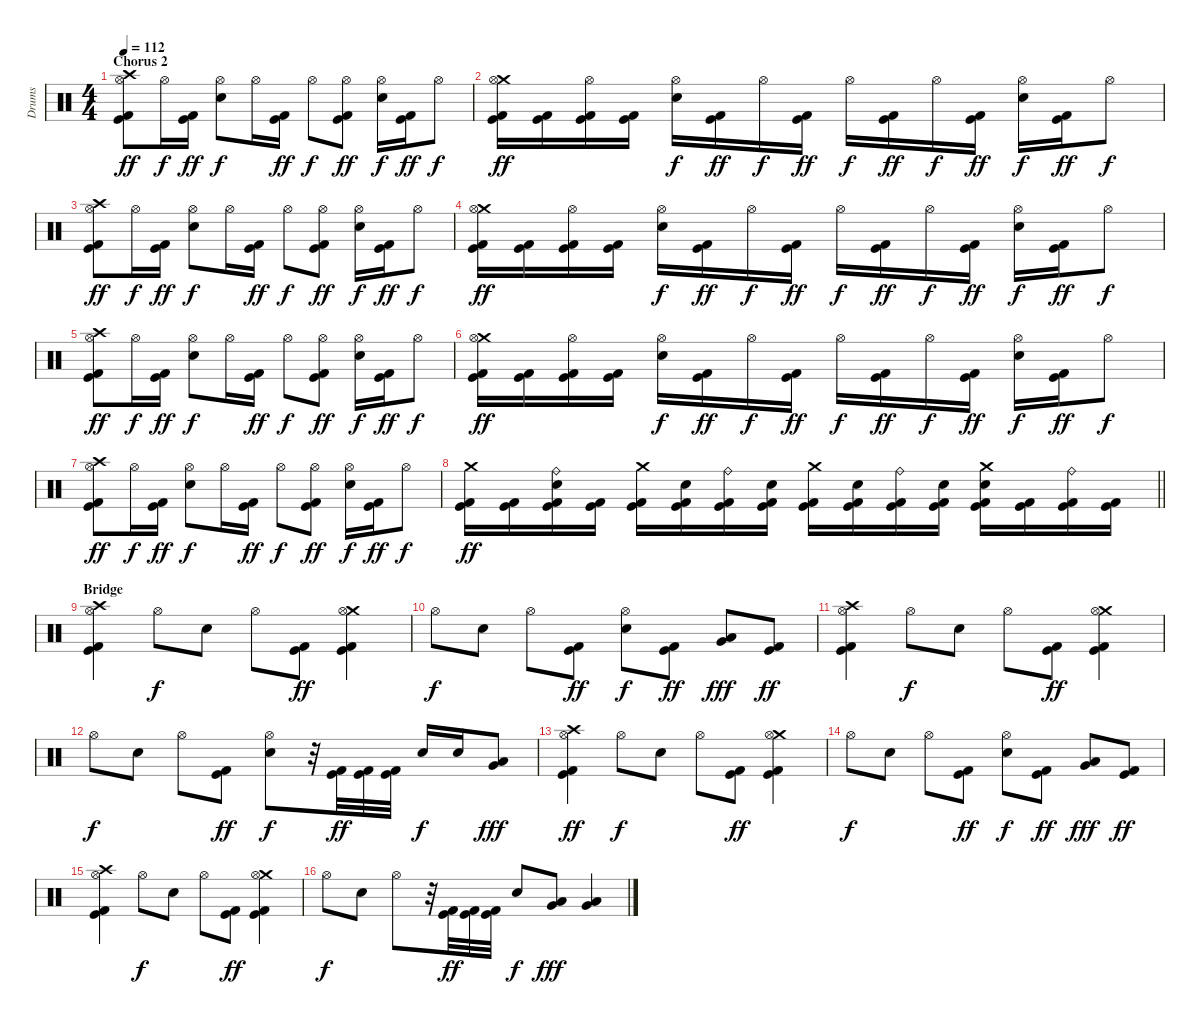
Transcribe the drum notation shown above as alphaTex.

\track ("Drums" "Drums") {instrument percussion}
\staff {score}
\articulation defaults
\ts (4 4)
\section ("" "Chorus 2")
\tempo 112
\clef neutral
\ks c
("Crash high (hit)" "Hi-Hat (open)" "Kick (hit)" "Kick (hit) 2").8{dy ff} "Hi-Hat (open)".16{dy f} ("Kick (hit)" "Kick (hit) 2").16{dy ff} ("Hi-Hat (open)" "Snare (hit) 2").8{dy f} "Hi-Hat (open)".16 ("Kick (hit)" "Kick (hit) 2").16{dy ff} "Hi-Hat (open)".8{dy f} ("Hi-Hat (open)" "Kick (hit)" "Kick (hit) 2").8{dy ff} ("Hi-Hat (open)" "Snare (hit) 2").16{dy f} ("Kick (hit)" "Kick (hit) 2").16{dy ff} "Hi-Hat (open)".8{dy f} |
("Crash medium (hit)" "Hi-Hat (open)" "Kick (hit)" "Kick (hit) 2").16{dy ff} ("Kick (hit)" "Kick (hit) 2").16 ("Hi-Hat (open)" "Kick (hit)" "Kick (hit) 2").16 ("Kick (hit)" "Kick (hit) 2").16 ("Hi-Hat (open)" "Snare (hit) 2").16{dy f} ("Kick (hit)" "Kick (hit) 2").16{dy ff} "Hi-Hat (open)".16{dy f} ("Kick (hit)" "Kick (hit) 2").16{dy ff} "Hi-Hat (open)".16{dy f} ("Kick (hit)" "Kick (hit) 2").16{dy ff} "Hi-Hat (open)".16{dy f} ("Kick (hit)" "Kick (hit) 2").16{dy ff} ("Hi-Hat (open)" "Snare (hit) 2").16{dy f} ("Kick (hit)" "Kick (hit) 2").16{dy ff} "Hi-Hat (open)".8{dy f} |
("Crash high (hit)" "Hi-Hat (open)" "Kick (hit)" "Kick (hit) 2").8{dy ff} "Hi-Hat (open)".16{dy f} ("Kick (hit)" "Kick (hit) 2").16{dy ff} ("Hi-Hat (open)" "Snare (hit) 2").8{dy f} "Hi-Hat (open)".16 ("Kick (hit)" "Kick (hit) 2").16{dy ff} "Hi-Hat (open)".8{dy f} ("Hi-Hat (open)" "Kick (hit)" "Kick (hit) 2").8{dy ff} ("Hi-Hat (open)" "Snare (hit) 2").16{dy f} ("Kick (hit)" "Kick (hit) 2").16{dy ff} "Hi-Hat (open)".8{dy f} |
("Crash medium (hit)" "Hi-Hat (open)" "Kick (hit)" "Kick (hit) 2").16{dy ff} ("Kick (hit)" "Kick (hit) 2").16 ("Hi-Hat (open)" "Kick (hit)" "Kick (hit) 2").16 ("Kick (hit)" "Kick (hit) 2").16 ("Hi-Hat (open)" "Snare (hit) 2").16{dy f} ("Kick (hit)" "Kick (hit) 2").16{dy ff} "Hi-Hat (open)".16{dy f} ("Kick (hit)" "Kick (hit) 2").16{dy ff} "Hi-Hat (open)".16{dy f} ("Kick (hit)" "Kick (hit) 2").16{dy ff} "Hi-Hat (open)".16{dy f} ("Kick (hit)" "Kick (hit) 2").16{dy ff} ("Hi-Hat (open)" "Snare (hit) 2").16{dy f} ("Kick (hit)" "Kick (hit) 2").16{dy ff} "Hi-Hat (open)".8{dy f} |
("Crash high (hit)" "Hi-Hat (open)" "Kick (hit)" "Kick (hit) 2").8{dy ff} "Hi-Hat (open)".16{dy f} ("Kick (hit)" "Kick (hit) 2").16{dy ff} ("Hi-Hat (open)" "Snare (hit) 2").8{dy f} "Hi-Hat (open)".16 ("Kick (hit)" "Kick (hit) 2").16{dy ff} "Hi-Hat (open)".8{dy f} ("Hi-Hat (open)" "Kick (hit)" "Kick (hit) 2").8{dy ff} ("Hi-Hat (open)" "Snare (hit) 2").16{dy f} ("Kick (hit)" "Kick (hit) 2").16{dy ff} "Hi-Hat (open)".8{dy f} |
("Crash medium (hit)" "Hi-Hat (open)" "Kick (hit)" "Kick (hit) 2").16{dy ff} ("Kick (hit)" "Kick (hit) 2").16 ("Hi-Hat (open)" "Kick (hit)" "Kick (hit) 2").16 ("Kick (hit)" "Kick (hit) 2").16 ("Hi-Hat (open)" "Snare (hit) 2").16{dy f} ("Kick (hit)" "Kick (hit) 2").16{dy ff} "Hi-Hat (open)".16{dy f} ("Kick (hit)" "Kick (hit) 2").16{dy ff} "Hi-Hat (open)".16{dy f} ("Kick (hit)" "Kick (hit) 2").16{dy ff} "Hi-Hat (open)".16{dy f} ("Kick (hit)" "Kick (hit) 2").16{dy ff} ("Hi-Hat (open)" "Snare (hit) 2").16{dy f} ("Kick (hit)" "Kick (hit) 2").16{dy ff} "Hi-Hat (open)".8{dy f} |
("Crash high (hit)" "Hi-Hat (open)" "Kick (hit)" "Kick (hit) 2").8{dy ff} "Hi-Hat (open)".16{dy f} ("Kick (hit)" "Kick (hit) 2").16{dy ff} ("Hi-Hat (open)" "Snare (hit) 2").8{dy f} "Hi-Hat (open)".16 ("Kick (hit)" "Kick (hit) 2").16{dy ff} "Hi-Hat (open)".8{dy f} ("Hi-Hat (open)" "Kick (hit)" "Kick (hit) 2").8{dy ff} ("Hi-Hat (open)" "Snare (hit) 2").16{dy f} ("Kick (hit)" "Kick (hit) 2").16{dy ff} "Hi-Hat (open)".8{dy f} |
\barLineRight lightlight
("Crash medium (hit)" "Kick (hit)" "Kick (hit) 2").16{dy ff} ("Kick (hit)" "Kick (hit) 2").16 ("Ride (bell)" "Snare (hit) 2" "Kick (hit)" "Kick (hit) 2").16 ("Kick (hit)" "Kick (hit) 2").16 ("Crash medium (hit)" "Kick (hit)" "Kick (hit) 2").16 ("Snare (hit) 2" "Kick (hit)" "Kick (hit) 2").16 ("Ride (bell)" "Kick (hit)" "Kick (hit) 2").16 ("Snare (hit) 2" "Kick (hit)" "Kick (hit) 2").16 ("Crash medium (hit)" "Kick (hit)" "Kick (hit) 2").16 ("Snare (hit) 2" "Kick (hit)" "Kick (hit) 2").16 ("Ride (bell)" "Kick (hit)" "Kick (hit) 2").16 ("Snare (hit) 2" "Kick (hit)" "Kick (hit) 2").16 ("Crash medium (hit)" "Snare (hit) 2" "Kick (hit)" "Kick (hit) 2").16 ("Kick (hit)" "Kick (hit) 2").16 ("Ride (bell)" "Kick (hit)" "Kick (hit) 2").16 ("Kick (hit)" "Kick (hit) 2").16 |
\section ("" "Bridge")
("Crash high (hit)" "Hi-Hat (open)" "Kick (hit)" "Kick (hit) 2").4 "Hi-Hat (open)".8{dy f} "Snare (hit) 2".8 "Hi-Hat (open)".8 ("Kick (hit)" "Kick (hit) 2").8{dy ff} ("Crash medium (hit)" "Hi-Hat (open)" "Kick (hit)" "Kick (hit) 2").4 |
"Hi-Hat (open)".8{dy f} "Snare (hit) 2".8 "Hi-Hat (open)".8 ("Kick (hit)" "Kick (hit) 2").8{dy ff} ("Hi-Hat (open)" "Snare (hit) 2").8{dy f} ("Kick (hit)" "Kick (hit) 2").8{dy ff} ("Very Low Tom (hit)" "Low Floor Tom (hit)").8{dy fff} ("Kick (hit)" "Kick (hit) 2").8{dy ff} |
("Crash high (hit)" "Hi-Hat (open)" "Kick (hit)" "Kick (hit) 2").4 "Hi-Hat (open)".8{dy f} "Snare (hit) 2".8 "Hi-Hat (open)".8 ("Kick (hit)" "Kick (hit) 2").8{dy ff} ("Crash medium (hit)" "Hi-Hat (open)" "Kick (hit)" "Kick (hit) 2").4 |
"Hi-Hat (open)".8{dy f} "Snare (hit) 2".8 "Hi-Hat (open)".8 ("Kick (hit)" "Kick (hit) 2").8{dy ff} ("Hi-Hat (open)" "Snare (hit) 2").8{dy f} r.32 ("Kick (hit)" "Kick (hit) 2").32{dy ff} ("Kick (hit)" "Kick (hit) 2").32 ("Kick (hit)" "Kick (hit) 2").32 "Snare (hit) 2".16{dy f} "Snare (hit) 2".16 ("Very Low Tom (hit)" "Low Floor Tom (hit)").8{dy fff} |
("Crash high (hit)" "Hi-Hat (open)" "Kick (hit)" "Kick (hit) 2").4{dy ff} "Hi-Hat (open)".8{dy f} "Snare (hit) 2".8 "Hi-Hat (open)".8 ("Kick (hit)" "Kick (hit) 2").8{dy ff} ("Crash medium (hit)" "Hi-Hat (open)" "Kick (hit)" "Kick (hit) 2").4 |
"Hi-Hat (open)".8{dy f} "Snare (hit) 2".8 "Hi-Hat (open)".8 ("Kick (hit)" "Kick (hit) 2").8{dy ff} ("Hi-Hat (open)" "Snare (hit) 2").8{dy f} ("Kick (hit)" "Kick (hit) 2").8{dy ff} ("Very Low Tom (hit)" "Low Floor Tom (hit)").8{dy fff} ("Kick (hit)" "Kick (hit) 2").8{dy ff} |
("Crash high (hit)" "Hi-Hat (open)" "Kick (hit)" "Kick (hit) 2").4 "Hi-Hat (open)".8{dy f} "Snare (hit) 2".8 "Hi-Hat (open)".8 ("Kick (hit)" "Kick (hit) 2").8{dy ff} ("Crash medium (hit)" "Hi-Hat (open)" "Kick (hit)" "Kick (hit) 2").4 |
"Hi-Hat (open)".8{dy f} "Snare (hit) 2".8 "Hi-Hat (open)".8 r.32 ("Kick (hit)" "Kick (hit) 2").32{dy ff} ("Kick (hit)" "Kick (hit) 2").32 ("Kick (hit)" "Kick (hit) 2").32 "Snare (hit) 2".8{dy f} ("Low Tom (hit)" "Very Low Tom (hit)").8{dy fff} ("Very Low Tom (hit)" "Low Floor Tom (hit)").4
